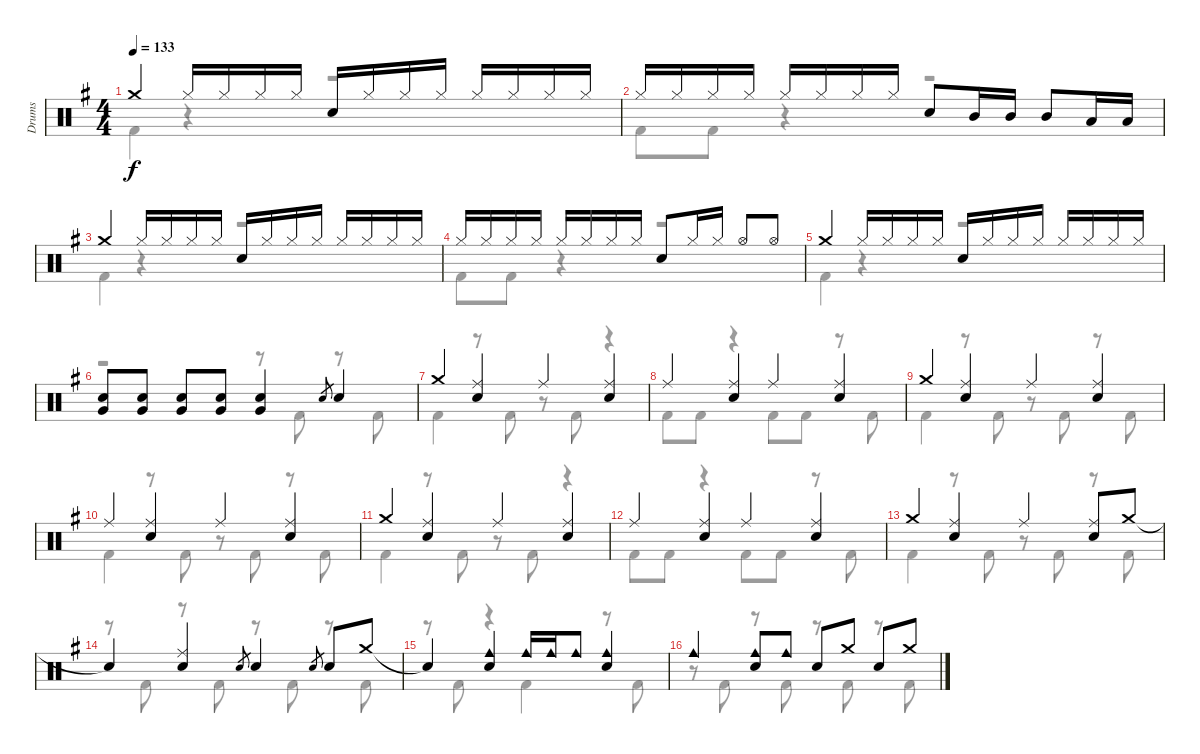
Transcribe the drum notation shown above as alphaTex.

\track ("Drums" "Drums") {instrument percussion}
\staff {score}
\articulation defaults
\voice
\ts (4 4)
\tempo 133
\clef neutral
\ks g "Crash medium (hit)".4{dy f} "Hi-Hat (closed)".16 "Hi-Hat (closed)".16 "Hi-Hat (closed)".16 "Hi-Hat (closed)".16 "Snare (hit) 2".16 "Hi-Hat (closed)".16 "Hi-Hat (closed)".16 "Hi-Hat (closed)".16 "Hi-Hat (closed)".16 "Hi-Hat (closed)".16 "Hi-Hat (closed)".16 "Hi-Hat (closed)".16
|
"Hi-Hat (closed)".16 "Hi-Hat (closed)".16 "Hi-Hat (closed)".16 "Hi-Hat (closed)".16 "Hi-Hat (closed)".16 "Hi-Hat (closed)".16 "Hi-Hat (closed)".16 "Hi-Hat (closed)".16 "Snare (hit) 2".8 "Mid Tom (hit)".16 "Mid Tom (hit)".16 "Mid Tom (hit)".8 "Low Tom (hit)".16 "Low Tom (hit)".16 |
"Crash medium (hit)".4 "Hi-Hat (closed)".16 "Hi-Hat (closed)".16 "Hi-Hat (closed)".16 "Hi-Hat (closed)".16 "Snare (hit) 2".16 "Hi-Hat (closed)".16 "Hi-Hat (closed)".16 "Hi-Hat (closed)".16 "Hi-Hat (closed)".16 "Hi-Hat (closed)".16 "Hi-Hat (closed)".16 "Hi-Hat (closed)".16 |
"Hi-Hat (closed)".16 "Hi-Hat (closed)".16 "Hi-Hat (closed)".16 "Hi-Hat (closed)".16 "Hi-Hat (closed)".16 "Hi-Hat (closed)".16 "Hi-Hat (closed)".16 "Hi-Hat (closed)".16 "Snare (hit) 2".8 "Hi-Hat (closed)".16 "Hi-Hat (closed)".16 "Hi-Hat (open)".8 "Hi-Hat (open)".8 |
"Crash medium (hit)".4 "Hi-Hat (closed)".16 "Hi-Hat (closed)".16 "Hi-Hat (closed)".16 "Hi-Hat (closed)".16 "Snare (hit) 2".16 "Hi-Hat (closed)".16 "Hi-Hat (closed)".16 "Hi-Hat (closed)".16 "Hi-Hat (closed)".16 "Hi-Hat (closed)".16 "Hi-Hat (closed)".16 "Hi-Hat (closed)".16 |
("Snare (hit) 2" "Very Low Tom (hit)").8 ("Snare (hit) 2" "Very Low Tom (hit)").8 ("Snare (hit) 2" "Very Low Tom (hit)").8 ("Snare (hit) 2" "Very Low Tom (hit)").8 ("Snare (hit) 2" "Very Low Tom (hit)").4 "Snare (hit) 2".8{gr} "Snare (hit) 2".4 |
"Crash medium (hit)".4 ("Ride (middle)" "Snare (hit) 2").4 "Ride (middle)".4 ("Ride (middle)" "Snare (hit) 2").4 |
"Ride (middle)".4 ("Ride (middle)" "Snare (hit) 2").4 "Ride (middle)".4 ("Ride (middle)" "Snare (hit) 2").4 |
"Crash medium (hit)".4 ("Ride (middle)" "Snare (hit) 2").4 "Ride (middle)".4 ("Ride (middle)" "Snare (hit) 2").4 |
"Ride (middle)".4 ("Ride (middle)" "Snare (hit) 2").4 "Ride (middle)".4 ("Ride (middle)" "Snare (hit) 2").4 |
"Crash medium (hit)".4 ("Ride (middle)" "Snare (hit) 2").4 "Ride (middle)".4 ("Ride (middle)" "Snare (hit) 2").4 |
"Ride (middle)".4 ("Ride (middle)" "Snare (hit) 2").4 "Ride (middle)".4 ("Ride (middle)" "Snare (hit) 2").4 |
"Crash medium (hit)".4 ("Ride (middle)" "Snare (hit) 2").4 "Ride (middle)".4 ("Ride (middle)" "Snare (hit) 2").8 "Crash medium (hit)".8 |
"Snare (hit)"{t}.4 ("Ride (middle)" "Snare (hit) 2").4 "Snare (hit) 2".8{gr} "Snare (hit) 2".4 "Snare (hit) 2".8{gr} "Snare (hit) 2".8 "Crash medium (hit)".8 |
"Snare (hit)"{t}.4 ("Cowbell medium (hit)" "Snare (hit) 2").4 "Cowbell medium (hit)".16 "Cowbell medium (hit)".16 "Cowbell medium (hit)".8 ("Cowbell medium (hit)" "Snare (hit) 2").4 |
"Cowbell medium (hit)".4 ("Cowbell medium (hit)" "Snare (hit) 2").8 "Cowbell medium (hit)".8 "Snare (hit) 2".8 "Crash medium (hit)".8 "Snare (hit) 2".8 "Crash medium (hit)".8
\voice
\clef neutral
\ottava regular
\simile none
\ks g "Kick (hit) 2".4{dy f}
r.4 r.2 |
"Kick (hit) 2".8 "Kick (hit) 2".8 r.4 r.2 |
"Kick (hit) 2".4 r.4 r.2 |
"Kick (hit) 2".8 "Kick (hit) 2".8 r.4 r.2 |
"Kick (hit) 2".4 r.4 r.2 |
r.2 r.8 "Kick (hit) 2".8 r.8 "Kick (hit) 2".8 |
"Kick (hit) 2".4 r.8 "Kick (hit) 2".8 r.8 "Kick (hit) 2".8 r.4 |
"Kick (hit) 2".8 "Kick (hit) 2".8 r.4 "Kick (hit) 2".8 "Kick (hit) 2".8 r.8 "Kick (hit) 2".8 |
"Kick (hit) 2".4 r.8 "Kick (hit) 2".8 r.8 "Kick (hit) 2".8 r.8 "Kick (hit) 2".8 |
"Kick (hit) 2".4 r.8 "Kick (hit) 2".8 r.8 "Kick (hit) 2".8 r.8 "Kick (hit) 2".8 |
"Kick (hit) 2".4 r.8 "Kick (hit) 2".8 r.8 "Kick (hit) 2".8 r.4 |
"Kick (hit) 2".8 "Kick (hit) 2".8 r.4 "Kick (hit) 2".8 "Kick (hit) 2".8 r.8 "Kick (hit) 2".8 |
"Kick (hit) 2".4 r.8 "Kick (hit) 2".8 r.8 "Kick (hit) 2".8 r.8 "Kick (hit) 2".8 |
r.8 "Kick (hit) 2".8 r.8 "Kick (hit) 2".8 r.8 "Kick (hit) 2".8 r.8 "Kick (hit) 2".8 |
r.8 "Kick (hit) 2".8 r.4 "Kick (hit) 2".4 r.8 "Kick (hit) 2".8 |
r.8 "Kick (hit) 2".8 r.8 "Kick (hit) 2".8 r.8 "Kick (hit) 2".8 r.8 "Kick (hit) 2".8
